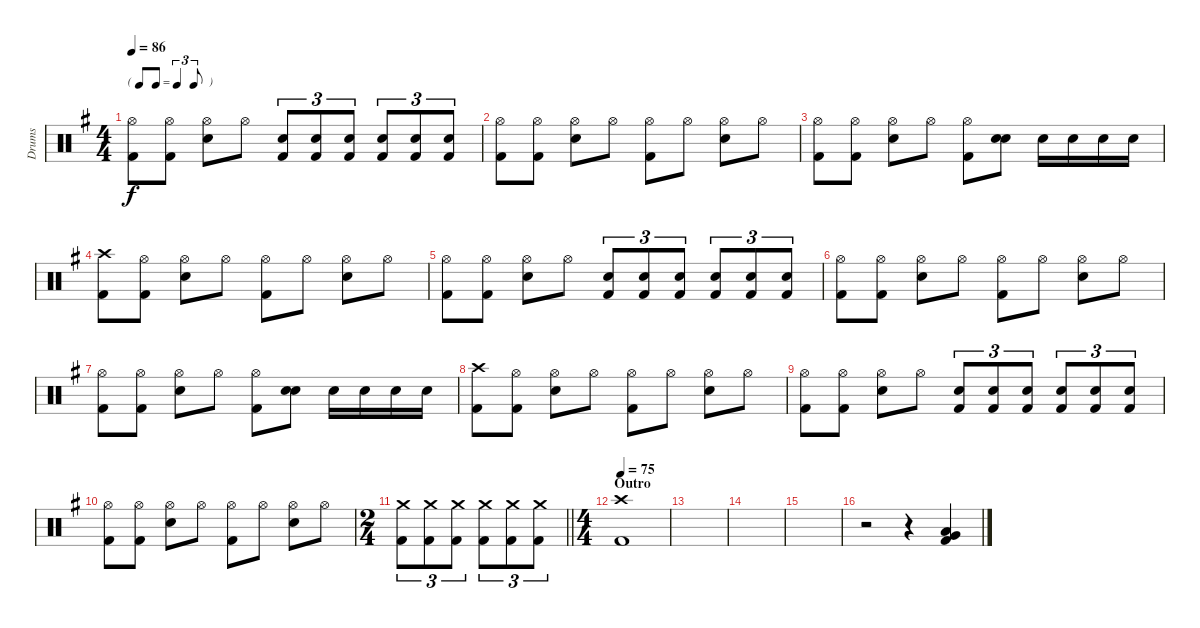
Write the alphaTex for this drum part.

\track ("Drums" "Drums") {instrument percussion}
\staff {score}
\articulation defaults
\ts (4 4)
\tf triplet8th
\tempo 86
\clef neutral
\ks g
("Hi-Hat (open)" "Kick (hit) 2").8{dy f} ("Hi-Hat (open)" "Kick (hit) 2").8 ("Hi-Hat (open)" "Snare (hit) 2").8 "Hi-Hat (open)".8 ("Snare (hit) 2" "Kick (hit) 2").8{tu (3 2)} ("Snare (hit) 2" "Kick (hit) 2").8{tu (3 2)} ("Snare (hit) 2" "Kick (hit) 2").8{tu (3 2)} ("Snare (hit) 2" "Kick (hit) 2").8{tu (3 2)} ("Snare (hit) 2" "Kick (hit) 2").8{tu (3 2)} ("Snare (hit) 2" "Kick (hit) 2").8{tu (3 2)} |
("Hi-Hat (open)" "Kick (hit) 2").8 ("Hi-Hat (open)" "Kick (hit) 2").8 ("Hi-Hat (open)" "Snare (hit) 2").8 "Hi-Hat (open)".8 ("Hi-Hat (open)" "Kick (hit) 2").8 "Hi-Hat (open)".8 ("Hi-Hat (open)" "Snare (hit) 2").8 "Hi-Hat (open)".8 |
("Hi-Hat (open)" "Kick (hit) 2").8 ("Hi-Hat (open)" "Kick (hit) 2").8 ("Hi-Hat (open)" "Snare (hit) 2").8 "Hi-Hat (open)".8 ("Hi-Hat (open)" "Kick (hit) 2").8 ("Snare (hit) 2" "Snare (hit) 2").8 "Snare (hit) 2".16 "Snare (hit) 2".16 "Snare (hit) 2".16 "Snare (hit) 2".16 |
("Crash high (hit)" "Kick (hit) 2").8 ("Hi-Hat (open)" "Kick (hit) 2").8 ("Hi-Hat (open)" "Snare (hit) 2").8 "Hi-Hat (open)".8 ("Hi-Hat (open)" "Kick (hit) 2").8 "Hi-Hat (open)".8 ("Hi-Hat (open)" "Snare (hit) 2").8 "Hi-Hat (open)".8 |
("Hi-Hat (open)" "Kick (hit) 2").8 ("Hi-Hat (open)" "Kick (hit) 2").8 ("Hi-Hat (open)" "Snare (hit) 2").8 "Hi-Hat (open)".8 ("Snare (hit) 2" "Kick (hit) 2").8{tu (3 2)} ("Snare (hit) 2" "Kick (hit) 2").8{tu (3 2)} ("Snare (hit) 2" "Kick (hit) 2").8{tu (3 2)} ("Snare (hit) 2" "Kick (hit) 2").8{tu (3 2)} ("Snare (hit) 2" "Kick (hit) 2").8{tu (3 2)} ("Snare (hit) 2" "Kick (hit) 2").8{tu (3 2)} |
("Hi-Hat (open)" "Kick (hit) 2").8 ("Hi-Hat (open)" "Kick (hit) 2").8 ("Hi-Hat (open)" "Snare (hit) 2").8 "Hi-Hat (open)".8 ("Hi-Hat (open)" "Kick (hit) 2").8 "Hi-Hat (open)".8 ("Hi-Hat (open)" "Snare (hit) 2").8 "Hi-Hat (open)".8 |
("Hi-Hat (open)" "Kick (hit) 2").8 ("Hi-Hat (open)" "Kick (hit) 2").8 ("Hi-Hat (open)" "Snare (hit) 2").8 "Hi-Hat (open)".8 ("Hi-Hat (open)" "Kick (hit) 2").8 ("Snare (hit) 2" "Snare (hit) 2").8 "Snare (hit) 2".16 "Snare (hit) 2".16 "Snare (hit) 2".16 "Snare (hit) 2".16 |
("Crash high (hit)" "Kick (hit) 2").8 ("Hi-Hat (open)" "Kick (hit) 2").8 ("Hi-Hat (open)" "Snare (hit) 2").8 "Hi-Hat (open)".8 ("Hi-Hat (open)" "Kick (hit) 2").8 "Hi-Hat (open)".8 ("Hi-Hat (open)" "Snare (hit) 2").8 "Hi-Hat (open)".8 |
("Hi-Hat (open)" "Kick (hit) 2").8 ("Hi-Hat (open)" "Kick (hit) 2").8 ("Hi-Hat (open)" "Snare (hit) 2").8 "Hi-Hat (open)".8 ("Snare (hit) 2" "Kick (hit) 2").8{tu (3 2)} ("Snare (hit) 2" "Kick (hit) 2").8{tu (3 2)} ("Snare (hit) 2" "Kick (hit) 2").8{tu (3 2)} ("Snare (hit) 2" "Kick (hit) 2").8{tu (3 2)} ("Snare (hit) 2" "Kick (hit) 2").8{tu (3 2)} ("Snare (hit) 2" "Kick (hit) 2").8{tu (3 2)} |
("Hi-Hat (open)" "Kick (hit) 2").8 ("Hi-Hat (open)" "Kick (hit) 2").8 ("Hi-Hat (open)" "Snare (hit) 2").8 "Hi-Hat (open)".8 ("Hi-Hat (open)" "Kick (hit) 2").8 "Hi-Hat (open)".8 ("Hi-Hat (open)" "Snare (hit) 2").8 "Hi-Hat (open)".8 |
\ts (2 4)
\barLineRight lightlight
("Crash medium (hit)" "Kick (hit) 2").8{tu (3 2)} ("Crash medium (hit)" "Kick (hit) 2").8{tu (3 2)} ("Crash medium (hit)" "Kick (hit) 2").8{tu (3 2)} ("Crash medium (hit)" "Kick (hit) 2").8{tu (3 2)} ("Crash medium (hit)" "Kick (hit) 2").8{tu (3 2)} ("Crash medium (hit)" "Kick (hit) 2").8{tu (3 2)} |
\ts (4 4)
\section ("" "Outro")
\tempo 75
("Crash high (hit)" "Kick (hit) 2").1 |
|
|
|
r.2 r.4 ("Kick (hit) 2" "Very Low Tom (hit)" "Low Tom (hit)").4
